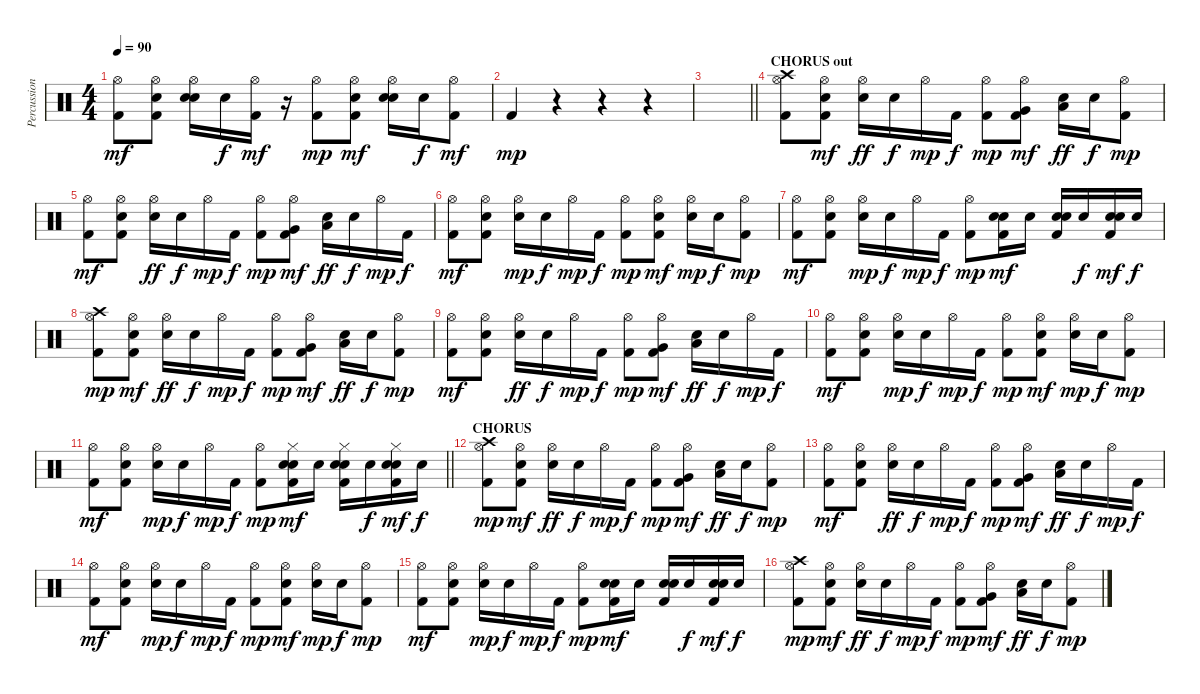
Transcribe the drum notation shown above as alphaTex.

\track ("Percussion" "Percussion") {instrument percussion}
\staff {score}
\articulation defaults
\ts (4 4)
\tempo 90
\clef neutral
\ks c
("Hi-Hat (open)" "Kick (hit) 2").8{dy mf} ("Hi-Hat (open)" "Snare (hit) 2" "Kick (hit) 2").8 ("Hi-Hat (open)" "Electric Snare (hit)" "Snare (hit) 2").16 "Snare (hit) 2".16{dy f} ("Hi-Hat (open)" "Kick (hit) 2").16{dy mf} r.16 ("Hi-Hat (open)" "Kick (hit) 2").8{dy mp} ("Hi-Hat (open)" "Snare (hit) 2" "Kick (hit) 2").8{dy mf} ("Hi-Hat (open)" "Electric Snare (hit)" "Snare (hit) 2").16 "Snare (hit) 2".16{dy f} ("Hi-Hat (open)" "Kick (hit) 2").8{dy mf} |
"Kick (hit) 2".4{dy mp} r.4 r.4 r.4 |
\barLineRight lightlight
|
\section ("" "CHORUS out")
("Hi-Hat (open)" "Crash high (hit)" "Kick (hit) 2").8 ("Hi-Hat (open)" "Snare (hit) 2" "Kick (hit) 2").8{dy mf} ("Hi-Hat (open)" "Snare (hit) 2").16{dy ff} "Snare (hit) 2".16{dy f} "Hi-Hat (open)".16{dy mp} "Kick (hit) 2".16{dy f} ("Hi-Hat (open)" "Kick (hit) 2").8{dy mp} ("Hi-Hat (open)" "Very Low Tom (hit)" "Kick (hit) 2").8{dy mf} ("Low Floor Tom (hit)" "Snare (hit) 2").16{dy ff} "Snare (hit) 2".16{dy f} ("Hi-Hat (open)" "Kick (hit) 2").8{dy mp} |
("Hi-Hat (open)" "Kick (hit) 2").8{dy mf} ("Hi-Hat (open)" "Snare (hit) 2" "Kick (hit) 2").8 ("Hi-Hat (open)" "Snare (hit) 2").16{dy ff} "Snare (hit) 2".16{dy f} "Hi-Hat (open)".16{dy mp} "Kick (hit) 2".16{dy f} ("Hi-Hat (open)" "Kick (hit) 2").8{dy mp} ("Hi-Hat (open)" "Very Low Tom (hit)" "Kick (hit) 2").8{dy mf} ("Low Floor Tom (hit)" "Snare (hit) 2").16{dy ff} "Snare (hit) 2".16{dy f} "Hi-Hat (open)".16{dy mp} "Kick (hit) 2".16{dy f} |
("Hi-Hat (open)" "Kick (hit) 2").8{dy mf} ("Hi-Hat (open)" "Snare (hit) 2" "Kick (hit) 2").8 ("Hi-Hat (open)" "Snare (hit) 2").16{dy mp} "Snare (hit) 2".16{dy f} "Hi-Hat (open)".16{dy mp} "Kick (hit) 2".16{dy f} ("Hi-Hat (open)" "Kick (hit) 2").8{dy mp} ("Hi-Hat (open)" "Snare (hit) 2" "Kick (hit) 2").8{dy mf} ("Hi-Hat (open)" "Snare (hit) 2").16{dy mp} "Snare (hit) 2".16{dy f} ("Hi-Hat (open)" "Kick (hit) 2").8{dy mp} |
("Hi-Hat (open)" "Kick (hit) 2").8{dy mf} ("Hi-Hat (open)" "Snare (hit) 2" "Kick (hit) 2").8 ("Hi-Hat (open)" "Snare (hit) 2").16{dy mp} "Snare (hit) 2".16{dy f} "Hi-Hat (open)".16{dy mp} "Kick (hit) 2".16{dy f} ("Hi-Hat (open)" "Kick (hit) 2").8{dy mp} ("Electric Snare (hit)" "Snare (hit) 2" "Kick (hit) 2").16{dy mf} "Electric Snare (hit)".16 ("Electric Snare (hit)" "Snare (hit) 2" "Kick (hit) 2").16 "Electric Snare (hit)".16{dy f} ("Electric Snare (hit)" "Snare (hit) 2" "Kick (hit) 2").16{dy mf} "Electric Snare (hit)".16{dy f} |
("Hi-Hat (open)" "Crash high (hit)" "Kick (hit) 2").8{dy mp} ("Hi-Hat (open)" "Snare (hit) 2" "Kick (hit) 2").8{dy mf} ("Hi-Hat (open)" "Snare (hit) 2").16{dy ff} "Snare (hit) 2".16{dy f} "Hi-Hat (open)".16{dy mp} "Kick (hit) 2".16{dy f} ("Hi-Hat (open)" "Kick (hit) 2").8{dy mp} ("Hi-Hat (open)" "Very Low Tom (hit)" "Kick (hit) 2").8{dy mf} ("Low Floor Tom (hit)" "Snare (hit) 2").16{dy ff} "Snare (hit) 2".16{dy f} ("Hi-Hat (open)" "Kick (hit) 2").8{dy mp} |
("Hi-Hat (open)" "Kick (hit) 2").8{dy mf} ("Hi-Hat (open)" "Snare (hit) 2" "Kick (hit) 2").8 ("Hi-Hat (open)" "Snare (hit) 2").16{dy ff} "Snare (hit) 2".16{dy f} "Hi-Hat (open)".16{dy mp} "Kick (hit) 2".16{dy f} ("Hi-Hat (open)" "Kick (hit) 2").8{dy mp} ("Hi-Hat (open)" "Very Low Tom (hit)" "Kick (hit) 2").8{dy mf} ("Low Floor Tom (hit)" "Snare (hit) 2").16{dy ff} "Snare (hit) 2".16{dy f} "Hi-Hat (open)".16{dy mp} "Kick (hit) 2".16{dy f} |
("Hi-Hat (open)" "Kick (hit) 2").8{dy mf} ("Hi-Hat (open)" "Snare (hit) 2" "Kick (hit) 2").8 ("Hi-Hat (open)" "Snare (hit) 2").16{dy mp} "Snare (hit) 2".16{dy f} "Hi-Hat (open)".16{dy mp} "Kick (hit) 2".16{dy f} ("Hi-Hat (open)" "Kick (hit) 2").8{dy mp} ("Hi-Hat (open)" "Snare (hit) 2" "Kick (hit) 2").8{dy mf} ("Hi-Hat (open)" "Snare (hit) 2").16{dy mp} "Snare (hit) 2".16{dy f} ("Hi-Hat (open)" "Kick (hit) 2").8{dy mp} |
\barLineRight lightlight
("Hi-Hat (open)" "Kick (hit) 2").8{dy mf} ("Hi-Hat (open)" "Snare (hit) 2" "Kick (hit) 2").8 ("Hi-Hat (open)" "Snare (hit) 2").16{dy mp} "Snare (hit) 2".16{dy f} "Hi-Hat (open)".16{dy mp} "Kick (hit) 2".16{dy f} ("Hi-Hat (open)" "Kick (hit) 2").8{dy mp} ("Hi-Hat (closed)" "Electric Snare (hit)" "Snare (hit) 2" "Kick (hit) 2").16{dy mf} "Electric Snare (hit)".16 ("Hi-Hat (closed)" "Electric Snare (hit)" "Snare (hit) 2" "Kick (hit) 2").16 "Electric Snare (hit)".16{dy f} ("Hi-Hat (closed)" "Electric Snare (hit)" "Snare (hit) 2" "Kick (hit) 2").16{dy mf} "Electric Snare (hit)".16{dy f} |
\section ("" "CHORUS")
("Hi-Hat (open)" "Crash high (hit)" "Kick (hit) 2").8{dy mp} ("Hi-Hat (open)" "Snare (hit) 2" "Kick (hit) 2").8{dy mf} ("Hi-Hat (open)" "Snare (hit) 2").16{dy ff} "Snare (hit) 2".16{dy f} "Hi-Hat (open)".16{dy mp} "Kick (hit) 2".16{dy f} ("Hi-Hat (open)" "Kick (hit) 2").8{dy mp} ("Hi-Hat (open)" "Very Low Tom (hit)" "Kick (hit) 2").8{dy mf} ("Low Floor Tom (hit)" "Snare (hit) 2").16{dy ff} "Snare (hit) 2".16{dy f} ("Hi-Hat (open)" "Kick (hit) 2").8{dy mp} |
("Hi-Hat (open)" "Kick (hit) 2").8{dy mf} ("Hi-Hat (open)" "Snare (hit) 2" "Kick (hit) 2").8 ("Hi-Hat (open)" "Snare (hit) 2").16{dy ff} "Snare (hit) 2".16{dy f} "Hi-Hat (open)".16{dy mp} "Kick (hit) 2".16{dy f} ("Hi-Hat (open)" "Kick (hit) 2").8{dy mp} ("Hi-Hat (open)" "Very Low Tom (hit)" "Kick (hit) 2").8{dy mf} ("Low Floor Tom (hit)" "Snare (hit) 2").16{dy ff} "Snare (hit) 2".16{dy f} "Hi-Hat (open)".16{dy mp} "Kick (hit) 2".16{dy f} |
("Hi-Hat (open)" "Kick (hit) 2").8{dy mf} ("Hi-Hat (open)" "Snare (hit) 2" "Kick (hit) 2").8 ("Hi-Hat (open)" "Snare (hit) 2").16{dy mp} "Snare (hit) 2".16{dy f} "Hi-Hat (open)".16{dy mp} "Kick (hit) 2".16{dy f} ("Hi-Hat (open)" "Kick (hit) 2").8{dy mp} ("Hi-Hat (open)" "Snare (hit) 2" "Kick (hit) 2").8{dy mf} ("Hi-Hat (open)" "Snare (hit) 2").16{dy mp} "Snare (hit) 2".16{dy f} ("Hi-Hat (open)" "Kick (hit) 2").8{dy mp} |
("Hi-Hat (open)" "Kick (hit) 2").8{dy mf} ("Hi-Hat (open)" "Snare (hit) 2" "Kick (hit) 2").8 ("Hi-Hat (open)" "Snare (hit) 2").16{dy mp} "Snare (hit) 2".16{dy f} "Hi-Hat (open)".16{dy mp} "Kick (hit) 2".16{dy f} ("Hi-Hat (open)" "Kick (hit) 2").8{dy mp} ("Electric Snare (hit)" "Snare (hit) 2" "Kick (hit) 2").16{dy mf} "Electric Snare (hit)".16 ("Electric Snare (hit)" "Snare (hit) 2" "Kick (hit) 2").16 "Electric Snare (hit)".16{dy f} ("Electric Snare (hit)" "Snare (hit) 2" "Kick (hit) 2").16{dy mf} "Electric Snare (hit)".16{dy f} |
("Hi-Hat (open)" "Crash high (hit)" "Kick (hit) 2").8{dy mp} ("Hi-Hat (open)" "Snare (hit) 2" "Kick (hit) 2").8{dy mf} ("Hi-Hat (open)" "Snare (hit) 2").16{dy ff} "Snare (hit) 2".16{dy f} "Hi-Hat (open)".16{dy mp} "Kick (hit) 2".16{dy f} ("Hi-Hat (open)" "Kick (hit) 2").8{dy mp} ("Hi-Hat (open)" "Very Low Tom (hit)" "Kick (hit) 2").8{dy mf} ("Low Floor Tom (hit)" "Snare (hit) 2").16{dy ff} "Snare (hit) 2".16{dy f} ("Hi-Hat (open)" "Kick (hit) 2").8{dy mp}
